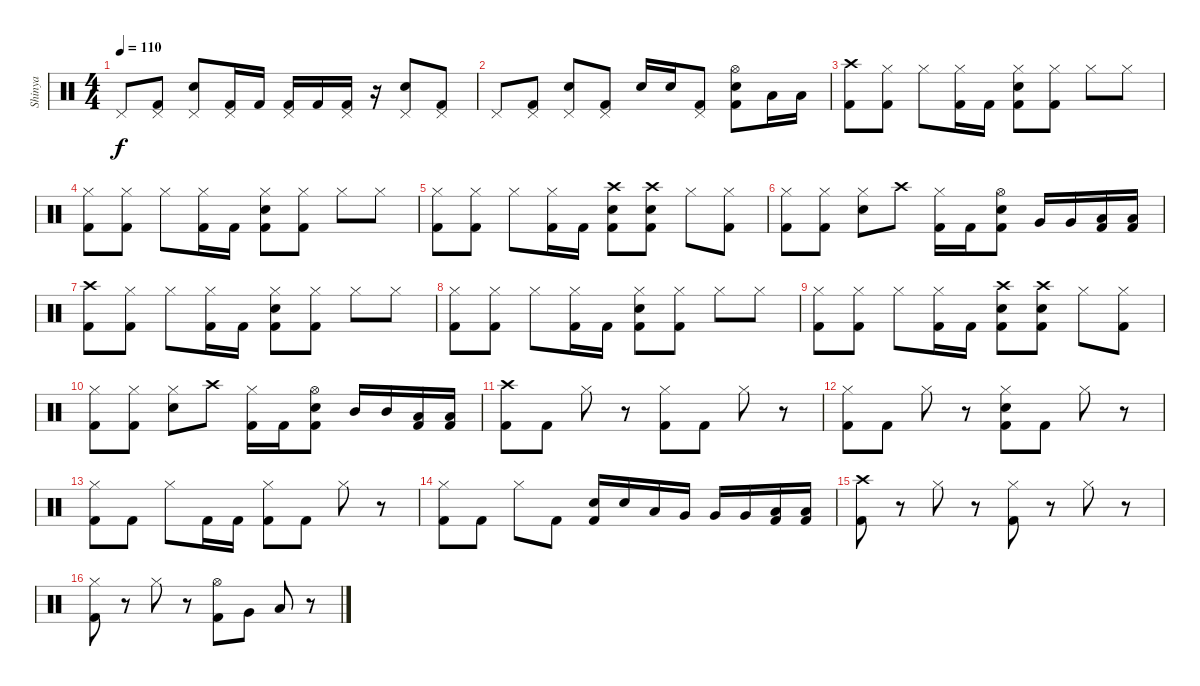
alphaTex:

\track ("Shinya" "Shinya") {instrument percussion}
\staff {score}
\articulation defaults
\ts (4 4)
\tempo 110
\clef neutral
\ks c "Pedal Hi-Hat (hit)".8{dy f}
("Pedal Hi-Hat (hit)" "Kick (hit) 2").8 ("Pedal Hi-Hat (hit)" "Electric Snare (hit)").8 ("Pedal Hi-Hat (hit)" "Kick (hit) 2").16 "Kick (hit) 2".16 ("Pedal Hi-Hat (hit)" "Kick (hit) 2").16 "Kick (hit) 2".16 ("Pedal Hi-Hat (hit)" "Kick (hit) 2").16 r.16 ("Pedal Hi-Hat (hit)" "Electric Snare (hit)").8 ("Pedal Hi-Hat (hit)" "Kick (hit) 2").8 |
"Pedal Hi-Hat (hit)".8 ("Pedal Hi-Hat (hit)" "Kick (hit) 2").8 ("Pedal Hi-Hat (hit)" "Electric Snare (hit)").8 ("Pedal Hi-Hat (hit)" "Kick (hit) 2").8 "Electric Snare (hit)".16 "Electric Snare (hit)".16 ("Pedal Hi-Hat (hit)" "Kick (hit) 2").8 ("Hi-Hat (open)" "Electric Snare (hit)" "Kick (hit) 2").8 "Low Floor Tom (hit)".16 "Low Floor Tom (hit)".16 |
("Crash high (hit)" "Kick (hit) 2").8 ("Hi-Hat (closed)" "Kick (hit) 2").8 "Hi-Hat (closed)".8 ("Hi-Hat (closed)" "Kick (hit) 2").16 "Kick (hit) 2".16 ("Hi-Hat (closed)" "Electric Snare (hit)" "Kick (hit) 2").8 ("Hi-Hat (closed)" "Kick (hit) 2").8 "Hi-Hat (closed)".8 "Hi-Hat (closed)".8 |
("Hi-Hat (closed)" "Kick (hit) 2").8 ("Hi-Hat (closed)" "Kick (hit) 2").8 "Hi-Hat (closed)".8 ("Hi-Hat (closed)" "Kick (hit) 2").16 "Kick (hit) 2".16 ("Hi-Hat (closed)" "Electric Snare (hit)" "Kick (hit) 2").8 ("Hi-Hat (closed)" "Kick (hit) 2").8 "Hi-Hat (closed)".8 "Hi-Hat (closed)".8 |
("Hi-Hat (closed)" "Kick (hit) 2").8 ("Hi-Hat (closed)" "Kick (hit) 2").8 "Hi-Hat (closed)".8 ("Hi-Hat (closed)" "Kick (hit) 2").16 "Kick (hit) 2".16 ("Crash high (hit)" "Electric Snare (hit)" "Kick (hit) 2").8 ("Crash high (hit)" "Electric Snare (hit)" "Kick (hit) 2").8 "Hi-Hat (closed)".8 ("Hi-Hat (closed)" "Kick (hit) 2").8 |
("Hi-Hat (closed)" "Kick (hit) 2").8 ("Hi-Hat (closed)" "Kick (hit) 2").8 ("Hi-Hat (closed)" "Electric Snare (hit)").8 "Crash high (hit)".8 ("Hi-Hat (closed)" "Kick (hit) 2").16 "Kick (hit) 2".16 ("Hi-Hat (open)" "Electric Snare (hit)" "Kick (hit) 2").8 "Very Low Tom (hit)".16 "Very Low Tom (hit)".16 ("Low Floor Tom (hit)" "Kick (hit) 2").16 ("Low Floor Tom (hit)" "Kick (hit) 2").16 |
("Crash high (hit)" "Kick (hit) 2").8 ("Hi-Hat (closed)" "Kick (hit) 2").8 "Hi-Hat (closed)".8 ("Hi-Hat (closed)" "Kick (hit) 2").16 "Kick (hit) 2".16 ("Hi-Hat (closed)" "Electric Snare (hit)" "Kick (hit) 2").8 ("Hi-Hat (closed)" "Kick (hit) 2").8 "Hi-Hat (closed)".8 "Hi-Hat (closed)".8 |
("Hi-Hat (closed)" "Kick (hit) 2").8 ("Hi-Hat (closed)" "Kick (hit) 2").8 "Hi-Hat (closed)".8 ("Hi-Hat (closed)" "Kick (hit) 2").16 "Kick (hit) 2".16 ("Hi-Hat (closed)" "Electric Snare (hit)" "Kick (hit) 2").8 ("Hi-Hat (closed)" "Kick (hit) 2").8 "Hi-Hat (closed)".8 "Hi-Hat (closed)".8 |
("Hi-Hat (closed)" "Kick (hit) 2").8 ("Hi-Hat (closed)" "Kick (hit) 2").8 "Hi-Hat (closed)".8 ("Hi-Hat (closed)" "Kick (hit) 2").16 "Kick (hit) 2".16 ("Crash high (hit)" "Electric Snare (hit)" "Kick (hit) 2").8 ("Crash high (hit)" "Electric Snare (hit)" "Kick (hit) 2").8 "Hi-Hat (closed)".8 ("Hi-Hat (closed)" "Kick (hit) 2").8 |
("Hi-Hat (closed)" "Kick (hit) 2").8 ("Hi-Hat (closed)" "Kick (hit) 2").8 ("Hi-Hat (closed)" "Electric Snare (hit)").8 "Crash high (hit)".8 ("Hi-Hat (closed)" "Kick (hit) 2").16 "Kick (hit) 2".16 ("Hi-Hat (open)" "Electric Snare (hit)" "Kick (hit) 2").8 "Mid Tom (hit)".16 "Mid Tom (hit)".16 ("Low Tom (hit)" "Kick (hit) 2").16 ("Low Tom (hit)" "Kick (hit) 2").16 |
("Crash high (hit)" "Kick (hit) 2").8 "Kick (hit) 2".8 "Hi-Hat (closed)".8 r.8 ("Hi-Hat (closed)" "Kick (hit) 2").8 "Kick (hit) 2".8 "Hi-Hat (closed)".8 r.8 |
("Hi-Hat (closed)" "Kick (hit) 2").8 "Kick (hit) 2".8 "Hi-Hat (closed)".8 r.8 ("Hi-Hat (closed)" "Electric Snare (hit)" "Kick (hit) 2").8 "Kick (hit) 2".8 "Hi-Hat (closed)".8 r.8 |
("Hi-Hat (closed)" "Kick (hit) 2").8 "Kick (hit) 2".8 "Hi-Hat (closed)".8 "Kick (hit) 2".16 "Kick (hit) 2".16 ("Hi-Hat (closed)" "Kick (hit) 2").8 "Kick (hit) 2".8 "Hi-Hat (closed)".8 r.8 |
("Hi-Hat (closed)" "Kick (hit) 2").8 "Kick (hit) 2".8 "Hi-Hat (closed)".8 "Kick (hit) 2".8 ("Electric Snare (hit)" "Kick (hit) 2").16 "Electric Snare (hit)".16 "Low Tom (hit)".16 "Very Low Tom (hit)".16 "Very Low Tom (hit)".16 "Very Low Tom (hit)".16 ("Low Floor Tom (hit)" "Kick (hit) 2").16 ("Low Floor Tom (hit)" "Kick (hit) 2").16 |
("Crash high (hit)" "Kick (hit) 2").8 r.8 "Hi-Hat (closed)".8 r.8 ("Hi-Hat (closed)" "Kick (hit) 2").8 r.8 "Hi-Hat (closed)".8 r.8 |
("Hi-Hat (closed)" "Kick (hit) 2").8 r.8 "Hi-Hat (closed)".8 r.8 ("Hi-Hat (open)" "Kick (hit) 2").8 "Very Low Tom (hit)".8 "Low Floor Tom (hit)".8 r.8
